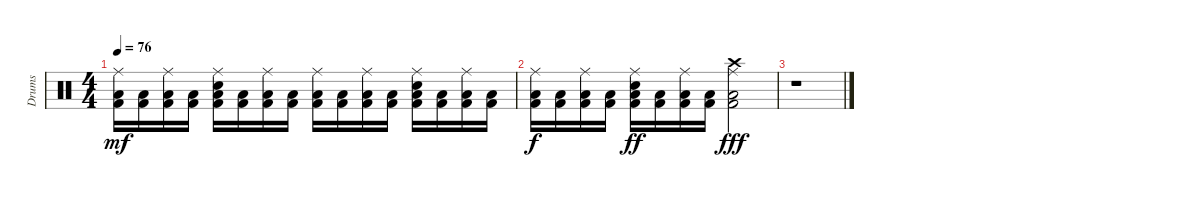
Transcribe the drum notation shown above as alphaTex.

\track ("Drums" "Drums") {instrument percussion}
\staff {score}
\articulation defaults
\ts (4 4)
\tempo 76
\clef neutral
\ks c
("Ride (middle)" "Low Floor Tom (hit)" "Kick (hit) 2").16{dy mf} ("Low Floor Tom (hit)" "Kick (hit) 2").16 ("Ride (middle)" "Low Floor Tom (hit)" "Kick (hit) 2").16 ("Low Floor Tom (hit)" "Kick (hit) 2").16 ("Electric Snare (hit)" "Ride (middle)" "Low Floor Tom (hit)" "Kick (hit) 2").16 ("Low Floor Tom (hit)" "Kick (hit) 2").16 ("Ride (middle)" "Low Floor Tom (hit)" "Kick (hit) 2").16 ("Low Floor Tom (hit)" "Kick (hit) 2").16 ("Ride (middle)" "Low Floor Tom (hit)" "Kick (hit) 2").16 ("Low Floor Tom (hit)" "Kick (hit) 2").16 ("Ride (middle)" "Low Floor Tom (hit)" "Kick (hit) 2").16 ("Low Floor Tom (hit)" "Kick (hit) 2").16 ("Electric Snare (hit)" "Ride (middle)" "Low Floor Tom (hit)" "Kick (hit) 2").16 ("Low Floor Tom (hit)" "Kick (hit) 2").16 ("Ride (middle)" "Low Floor Tom (hit)" "Kick (hit) 2").16 ("Low Floor Tom (hit)" "Kick (hit) 2").16 |
("Ride (middle)" "Low Floor Tom (hit)" "Kick (hit) 2").16{dy f} ("Low Floor Tom (hit)" "Kick (hit) 2").16 ("Ride (middle)" "Low Floor Tom (hit)" "Kick (hit) 2").16 ("Low Floor Tom (hit)" "Kick (hit) 2").16 ("Electric Snare (hit)" "Ride (middle)" "Low Floor Tom (hit)" "Kick (hit) 2").16{dy ff} ("Low Floor Tom (hit)" "Kick (hit) 2").16 ("Ride (middle)" "Low Floor Tom (hit)" "Kick (hit) 2").16 ("Low Floor Tom (hit)" "Kick (hit) 2").16 ("Crash high (hit)" "Ride (middle)" "Low Floor Tom (hit)" "Kick (hit) 2").2{dy fff} |
r.1
